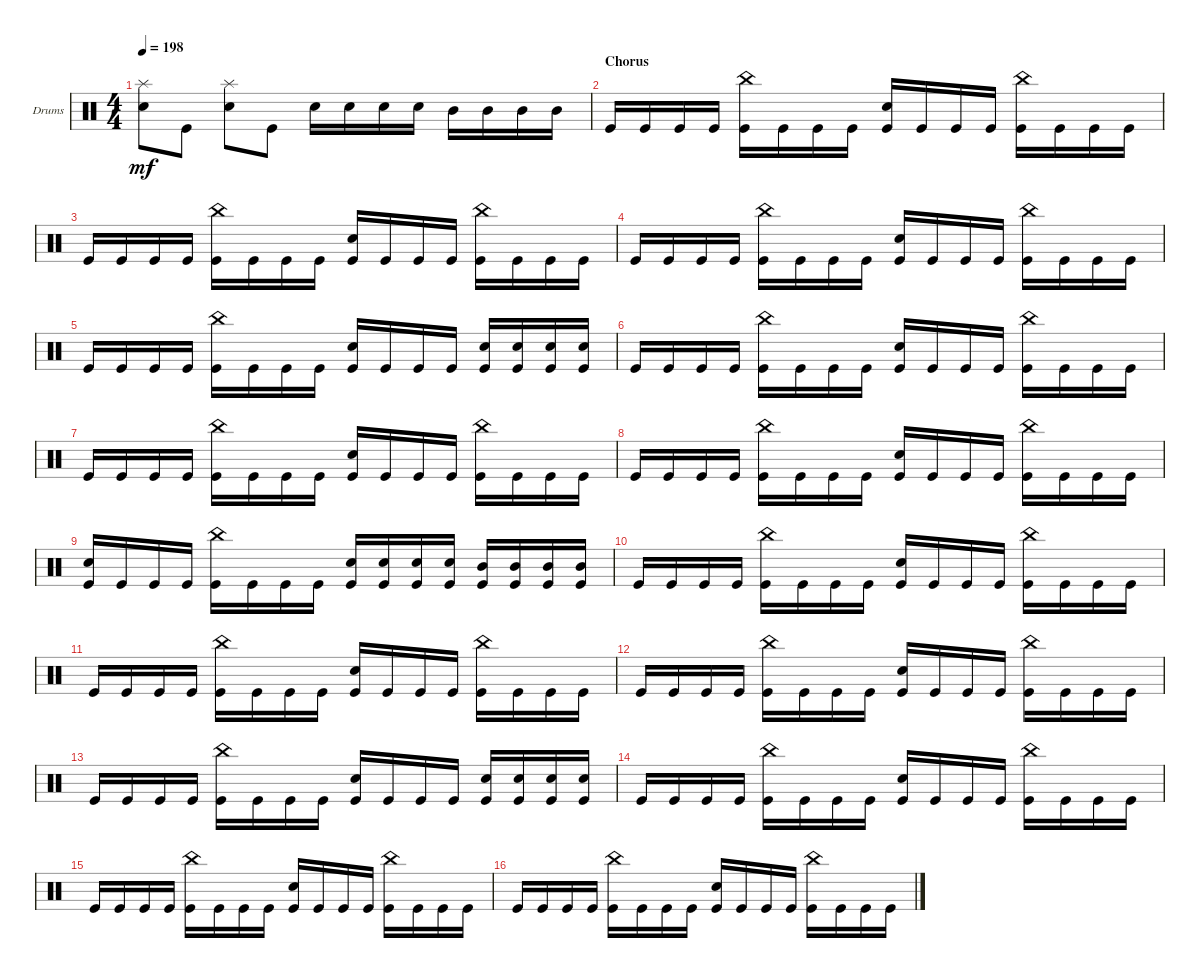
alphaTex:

\bracketExtendMode groupsimilarinstruments
\firstSystemTrackNameOrientation horizontal
\otherSystemsTrackNameOrientation horizontal
\track ("Drumkit" "Drums") {instrument percussion}
\staff {score}
\articulation defaults
\ts (4 4)
\tempo 198
\clef neutral
\ks c
("Snare (hit) 2" "Splash (hit)").8{dy mf} "Kick (hit)".8 ("Snare (hit) 2" "Splash (hit)").8 "Kick (hit)".8 "Snare (hit) 2".16 "Snare (hit) 2".16 "Snare (hit) 2".16 "Snare (hit) 2".16 "Mid Tom (hit)".16 "Mid Tom (hit)".16 "Mid Tom (hit)".16 "Mid Tom (hit)".16 |
\section ("" "Chorus")
"Kick (hit)".16 "Kick (hit)".16 "Kick (hit)".16 "Kick (hit)".16 ("Kick (hit)" "China (hit)").16 "Kick (hit)".16 "Kick (hit)".16 "Kick (hit)".16 ("Kick (hit)" "Snare (hit) 2").16 "Kick (hit)".16 "Kick (hit)".16 "Kick (hit)".16 ("Kick (hit)" "China (hit)").16 "Kick (hit)".16 "Kick (hit)".16 "Kick (hit)".16 |
"Kick (hit)".16 "Kick (hit)".16 "Kick (hit)".16 "Kick (hit)".16 ("Kick (hit)" "China (hit)").16 "Kick (hit)".16 "Kick (hit)".16 "Kick (hit)".16 ("Kick (hit)" "Snare (hit) 2").16 "Kick (hit)".16 "Kick (hit)".16 "Kick (hit)".16 ("Kick (hit)" "China (hit)").16 "Kick (hit)".16 "Kick (hit)".16 "Kick (hit)".16 |
"Kick (hit)".16 "Kick (hit)".16 "Kick (hit)".16 "Kick (hit)".16 ("Kick (hit)" "China (hit)").16 "Kick (hit)".16 "Kick (hit)".16 "Kick (hit)".16 ("Kick (hit)" "Snare (hit) 2").16 "Kick (hit)".16 "Kick (hit)".16 "Kick (hit)".16 ("Kick (hit)" "China (hit)").16 "Kick (hit)".16 "Kick (hit)".16 "Kick (hit)".16 |
"Kick (hit)".16 "Kick (hit)".16 "Kick (hit)".16 "Kick (hit)".16 ("Kick (hit)" "China (hit)").16 "Kick (hit)".16 "Kick (hit)".16 "Kick (hit)".16 ("Kick (hit)" "Snare (hit) 2").16 "Kick (hit)".16 "Kick (hit)".16 "Kick (hit)".16 ("Kick (hit)" "Snare (hit) 2").16 ("Kick (hit)" "Snare (hit) 2").16 ("Kick (hit)" "Snare (hit) 2").16 ("Kick (hit)" "Snare (hit) 2").16 |
"Kick (hit)".16 "Kick (hit)".16 "Kick (hit)".16 "Kick (hit)".16 ("Kick (hit)" "China (hit)").16 "Kick (hit)".16 "Kick (hit)".16 "Kick (hit)".16 ("Kick (hit)" "Snare (hit) 2").16 "Kick (hit)".16 "Kick (hit)".16 "Kick (hit)".16 ("Kick (hit)" "China (hit)").16 "Kick (hit)".16 "Kick (hit)".16 "Kick (hit)".16 |
"Kick (hit)".16 "Kick (hit)".16 "Kick (hit)".16 "Kick (hit)".16 ("Kick (hit)" "China (hit)").16 "Kick (hit)".16 "Kick (hit)".16 "Kick (hit)".16 ("Kick (hit)" "Snare (hit) 2").16 "Kick (hit)".16 "Kick (hit)".16 "Kick (hit)".16 ("Kick (hit)" "China (hit)").16 "Kick (hit)".16 "Kick (hit)".16 "Kick (hit)".16 |
"Kick (hit)".16 "Kick (hit)".16 "Kick (hit)".16 "Kick (hit)".16 ("Kick (hit)" "China (hit)").16 "Kick (hit)".16 "Kick (hit)".16 "Kick (hit)".16 ("Kick (hit)" "Snare (hit) 2").16 "Kick (hit)".16 "Kick (hit)".16 "Kick (hit)".16 ("Kick (hit)" "China (hit)").16 "Kick (hit)".16 "Kick (hit)".16 "Kick (hit)".16 |
("Kick (hit)" "Snare (hit) 2").16 "Kick (hit)".16 "Kick (hit)".16 "Kick (hit)".16 ("Kick (hit)" "China (hit)").16 "Kick (hit)".16 "Kick (hit)".16 "Kick (hit)".16 ("Kick (hit)" "Snare (hit) 2").16 ("Kick (hit)" "Snare (hit) 2").16 ("Kick (hit)" "Snare (hit) 2").16 ("Kick (hit)" "Snare (hit) 2").16 ("Kick (hit)" "Mid Tom (hit)").16 ("Kick (hit)" "Mid Tom (hit)").16 ("Kick (hit)" "Mid Tom (hit)").16 ("Kick (hit)" "Mid Tom (hit)").16 |
"Kick (hit)".16 "Kick (hit)".16 "Kick (hit)".16 "Kick (hit)".16 ("Kick (hit)" "China (hit)").16 "Kick (hit)".16 "Kick (hit)".16 "Kick (hit)".16 ("Kick (hit)" "Snare (hit) 2").16 "Kick (hit)".16 "Kick (hit)".16 "Kick (hit)".16 ("Kick (hit)" "China (hit)").16 "Kick (hit)".16 "Kick (hit)".16 "Kick (hit)".16 |
"Kick (hit)".16 "Kick (hit)".16 "Kick (hit)".16 "Kick (hit)".16 ("Kick (hit)" "China (hit)").16 "Kick (hit)".16 "Kick (hit)".16 "Kick (hit)".16 ("Kick (hit)" "Snare (hit) 2").16 "Kick (hit)".16 "Kick (hit)".16 "Kick (hit)".16 ("Kick (hit)" "China (hit)").16 "Kick (hit)".16 "Kick (hit)".16 "Kick (hit)".16 |
"Kick (hit)".16 "Kick (hit)".16 "Kick (hit)".16 "Kick (hit)".16 ("Kick (hit)" "China (hit)").16 "Kick (hit)".16 "Kick (hit)".16 "Kick (hit)".16 ("Kick (hit)" "Snare (hit) 2").16 "Kick (hit)".16 "Kick (hit)".16 "Kick (hit)".16 ("Kick (hit)" "China (hit)").16 "Kick (hit)".16 "Kick (hit)".16 "Kick (hit)".16 |
"Kick (hit)".16 "Kick (hit)".16 "Kick (hit)".16 "Kick (hit)".16 ("Kick (hit)" "China (hit)").16 "Kick (hit)".16 "Kick (hit)".16 "Kick (hit)".16 ("Kick (hit)" "Snare (hit) 2").16 "Kick (hit)".16 "Kick (hit)".16 "Kick (hit)".16 ("Kick (hit)" "Snare (hit) 2").16 ("Kick (hit)" "Snare (hit) 2").16 ("Kick (hit)" "Snare (hit) 2").16 ("Kick (hit)" "Snare (hit) 2").16 |
"Kick (hit)".16 "Kick (hit)".16 "Kick (hit)".16 "Kick (hit)".16 ("Kick (hit)" "China (hit)").16 "Kick (hit)".16 "Kick (hit)".16 "Kick (hit)".16 ("Kick (hit)" "Snare (hit) 2").16 "Kick (hit)".16 "Kick (hit)".16 "Kick (hit)".16 ("Kick (hit)" "China (hit)").16 "Kick (hit)".16 "Kick (hit)".16 "Kick (hit)".16 |
"Kick (hit)".16 "Kick (hit)".16 "Kick (hit)".16 "Kick (hit)".16 ("Kick (hit)" "China (hit)").16 "Kick (hit)".16 "Kick (hit)".16 "Kick (hit)".16 ("Kick (hit)" "Snare (hit) 2").16 "Kick (hit)".16 "Kick (hit)".16 "Kick (hit)".16 ("Kick (hit)" "China (hit)").16 "Kick (hit)".16 "Kick (hit)".16 "Kick (hit)".16 |
"Kick (hit)".16 "Kick (hit)".16 "Kick (hit)".16 "Kick (hit)".16 ("Kick (hit)" "China (hit)").16 "Kick (hit)".16 "Kick (hit)".16 "Kick (hit)".16 ("Kick (hit)" "Snare (hit) 2").16 "Kick (hit)".16 "Kick (hit)".16 "Kick (hit)".16 ("Kick (hit)" "China (hit)").16 "Kick (hit)".16 "Kick (hit)".16 "Kick (hit)".16
